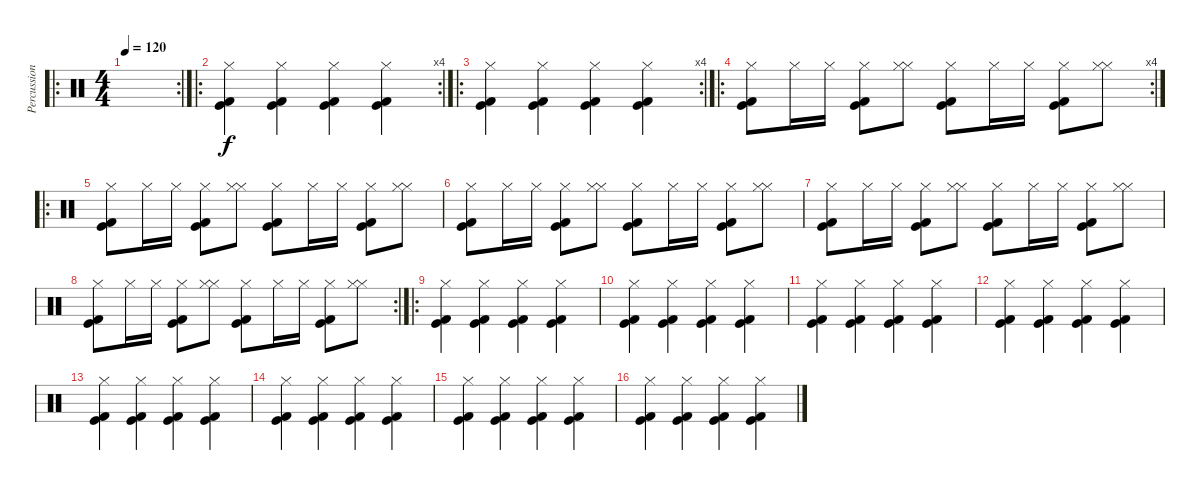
\track ("Percussions" "Percussion") {instrument percussion}
\staff {score}
\articulation defaults
\ro
\rc 2
\ts (4 4)
\tempo 120
\clef neutral
\ks c
|
\ro
\rc 4
("Kick (hit) 2" "Kick (hit)" "Hi-Hat (closed)").4 ("Kick (hit) 2" "Kick (hit)" "Hi-Hat (closed)").4 ("Kick (hit) 2" "Kick (hit)" "Hi-Hat (closed)").4 ("Kick (hit) 2" "Kick (hit)" "Hi-Hat (closed)").4 |
\ro
\rc 4
("Kick (hit) 2" "Kick (hit)" "Hi-Hat (closed)").4 ("Kick (hit) 2" "Kick (hit)" "Hi-Hat (closed)").4 ("Kick (hit) 2" "Kick (hit)" "Hi-Hat (closed)").4 ("Kick (hit) 2" "Kick (hit)" "Hi-Hat (closed)").4 |
\ro
\rc 4
("Kick (hit) 2" "Kick (hit)" "Hi-Hat (closed)").8 "Hi-Hat (closed)".16 "Hi-Hat (closed)".16 ("Kick (hit) 2" "Kick (hit)" "Hi-Hat (closed)").8 ("Hi-Hat (closed)" "Hi-Hat (closed)").8 ("Kick (hit) 2" "Kick (hit)" "Hi-Hat (closed)").8 "Hi-Hat (closed)".16 "Hi-Hat (closed)".16 ("Kick (hit) 2" "Kick (hit)" "Hi-Hat (closed)").8 ("Hi-Hat (closed)" "Hi-Hat (closed)").8 |
\ro
("Kick (hit) 2" "Kick (hit)" "Hi-Hat (closed)").8 "Hi-Hat (closed)".16 "Hi-Hat (closed)".16 ("Kick (hit) 2" "Kick (hit)" "Hi-Hat (closed)").8 ("Hi-Hat (closed)" "Hi-Hat (closed)").8 ("Kick (hit) 2" "Kick (hit)" "Hi-Hat (closed)").8 "Hi-Hat (closed)".16 "Hi-Hat (closed)".16 ("Kick (hit) 2" "Kick (hit)" "Hi-Hat (closed)").8 ("Hi-Hat (closed)" "Hi-Hat (closed)").8 |
("Kick (hit) 2" "Kick (hit)" "Hi-Hat (closed)").8 "Hi-Hat (closed)".16 "Hi-Hat (closed)".16 ("Kick (hit) 2" "Kick (hit)" "Hi-Hat (closed)").8 ("Hi-Hat (closed)" "Hi-Hat (closed)").8 ("Kick (hit) 2" "Kick (hit)" "Hi-Hat (closed)").8 "Hi-Hat (closed)".16 "Hi-Hat (closed)".16 ("Kick (hit) 2" "Kick (hit)" "Hi-Hat (closed)").8 ("Hi-Hat (closed)" "Hi-Hat (closed)").8 |
("Kick (hit) 2" "Kick (hit)" "Hi-Hat (closed)").8 "Hi-Hat (closed)".16 "Hi-Hat (closed)".16 ("Kick (hit) 2" "Kick (hit)" "Hi-Hat (closed)").8 ("Hi-Hat (closed)" "Hi-Hat (closed)").8 ("Kick (hit) 2" "Kick (hit)" "Hi-Hat (closed)").8 "Hi-Hat (closed)".16 "Hi-Hat (closed)".16 ("Kick (hit) 2" "Kick (hit)" "Hi-Hat (closed)").8 ("Hi-Hat (closed)" "Hi-Hat (closed)").8 |
\rc 2
("Kick (hit) 2" "Kick (hit)" "Hi-Hat (closed)").8 "Hi-Hat (closed)".16 "Hi-Hat (closed)".16 ("Kick (hit) 2" "Kick (hit)" "Hi-Hat (closed)").8 ("Hi-Hat (closed)" "Hi-Hat (closed)").8 ("Kick (hit) 2" "Kick (hit)" "Hi-Hat (closed)").8 "Hi-Hat (closed)".16 "Hi-Hat (closed)".16 ("Kick (hit) 2" "Kick (hit)" "Hi-Hat (closed)").8 ("Hi-Hat (closed)" "Hi-Hat (closed)").8 |
\ro
("Kick (hit) 2" "Kick (hit)" "Hi-Hat (closed)").4 ("Kick (hit) 2" "Kick (hit)" "Hi-Hat (closed)").4 ("Kick (hit) 2" "Kick (hit)" "Hi-Hat (closed)").4 ("Kick (hit) 2" "Kick (hit)" "Hi-Hat (closed)").4 |
("Kick (hit) 2" "Kick (hit)" "Hi-Hat (closed)").4 ("Kick (hit) 2" "Kick (hit)" "Hi-Hat (closed)").4 ("Kick (hit) 2" "Kick (hit)" "Hi-Hat (closed)").4 ("Kick (hit) 2" "Kick (hit)" "Hi-Hat (closed)").4 |
("Kick (hit) 2" "Kick (hit)" "Hi-Hat (closed)").4 ("Kick (hit) 2" "Kick (hit)" "Hi-Hat (closed)").4 ("Kick (hit) 2" "Kick (hit)" "Hi-Hat (closed)").4 ("Kick (hit) 2" "Kick (hit)" "Hi-Hat (closed)").4 |
("Kick (hit) 2" "Kick (hit)" "Hi-Hat (closed)").4 ("Kick (hit) 2" "Kick (hit)" "Hi-Hat (closed)").4 ("Kick (hit) 2" "Kick (hit)" "Hi-Hat (closed)").4 ("Kick (hit) 2" "Kick (hit)" "Hi-Hat (closed)").4 |
("Kick (hit) 2" "Kick (hit)" "Hi-Hat (closed)").4 ("Kick (hit) 2" "Kick (hit)" "Hi-Hat (closed)").4 ("Kick (hit) 2" "Kick (hit)" "Hi-Hat (closed)").4 ("Kick (hit) 2" "Kick (hit)" "Hi-Hat (closed)").4 |
("Kick (hit) 2" "Kick (hit)" "Hi-Hat (closed)").4 ("Kick (hit) 2" "Kick (hit)" "Hi-Hat (closed)").4 ("Kick (hit) 2" "Kick (hit)" "Hi-Hat (closed)").4 ("Kick (hit) 2" "Kick (hit)" "Hi-Hat (closed)").4 |
("Kick (hit) 2" "Kick (hit)" "Hi-Hat (closed)").4 ("Kick (hit) 2" "Kick (hit)" "Hi-Hat (closed)").4 ("Kick (hit) 2" "Kick (hit)" "Hi-Hat (closed)").4 ("Kick (hit) 2" "Kick (hit)" "Hi-Hat (closed)").4 |
("Kick (hit) 2" "Kick (hit)" "Hi-Hat (closed)").4 ("Kick (hit) 2" "Kick (hit)" "Hi-Hat (closed)").4 ("Kick (hit) 2" "Kick (hit)" "Hi-Hat (closed)").4 ("Kick (hit) 2" "Kick (hit)" "Hi-Hat (closed)").4
